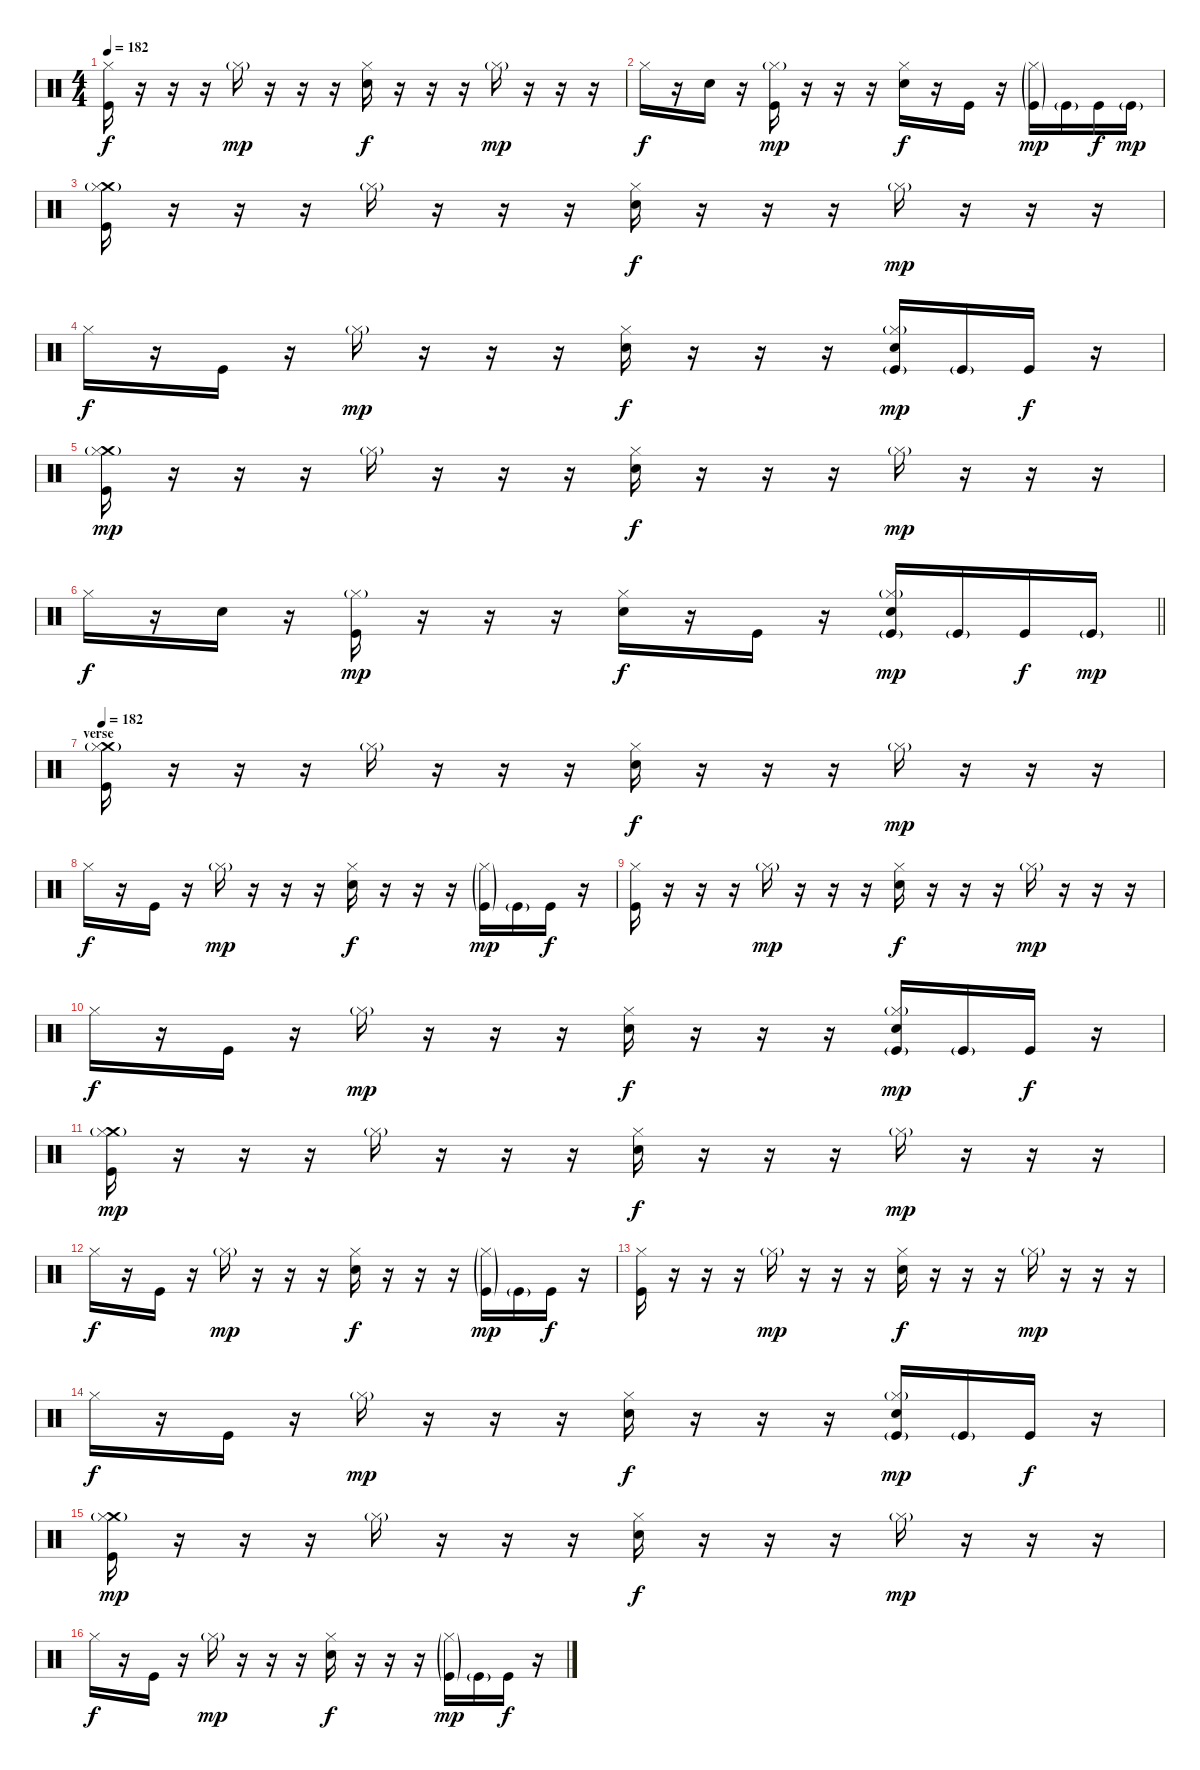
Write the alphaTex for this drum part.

\track "" {instrument percussion}
\staff {score}
\articulation defaults
\ts (4 4)
\tempo 182
\clef neutral
\ks c
("Kick (hit)" "Hi-Hat (closed)").16{dy f} r.16 r.16 r.16 "Hi-Hat (closed)"{g}.16{dy mp} r.16 r.16 r.16 ("Hi-Hat (closed)" "Electric Snare (hit)").16{dy f} r.16 r.16 r.16 "Hi-Hat (closed)"{g}.16{dy mp} r.16 r.16 r.16 |
"Hi-Hat (closed)".16{dy f} r.16 "Electric Snare (hit)".16 r.16 ("Kick (hit)" "Hi-Hat (closed)"{g}).16{dy mp} r.16 r.16 r.16 ("Hi-Hat (closed)" "Electric Snare (hit)").16{dy f} r.16 "Kick (hit)".16 r.16 ("Kick (hit)"{g} "Hi-Hat (closed)"{g}).16{dy mp} "Kick (hit)"{g}.16 "Kick (hit)".16{dy f} "Kick (hit)"{g}.16{dy mp} |
("Crash medium (hit)"{g} "Kick (hit)" "Hi-Hat (closed)").16 r.16 r.16 r.16 "Hi-Hat (closed)"{g}.16 r.16 r.16 r.16 ("Hi-Hat (closed)" "Electric Snare (hit)").16{dy f} r.16 r.16 r.16 "Hi-Hat (closed)"{g}.16{dy mp} r.16 r.16 r.16 |
"Hi-Hat (closed)".16{dy f} r.16 "Kick (hit)".16 r.16 "Hi-Hat (closed)"{g}.16{dy mp} r.16 r.16 r.16 ("Hi-Hat (closed)" "Electric Snare (hit)").16{dy f} r.16 r.16 r.16 ("Kick (hit)"{g} "Hi-Hat (closed)"{g} "Electric Snare (hit)").16{dy mp} "Kick (hit)"{g}.16 "Kick (hit)".16{dy f} r.16 |
("Crash medium (hit)"{g} "Kick (hit)" "Hi-Hat (closed)").16{dy mp} r.16 r.16 r.16 "Hi-Hat (closed)"{g}.16 r.16 r.16 r.16 ("Hi-Hat (closed)" "Electric Snare (hit)").16{dy f} r.16 r.16 r.16 "Hi-Hat (closed)"{g}.16{dy mp} r.16 r.16 r.16 |
\barLineRight lightlight "Hi-Hat (closed)".16{dy f}
r.16 "Electric Snare (hit)".16 r.16 ("Kick (hit)" "Hi-Hat (closed)"{g}).16{dy mp} r.16 r.16 r.16 ("Hi-Hat (closed)" "Electric Snare (hit)").16{dy f} r.16 "Kick (hit)".16 r.16 ("Kick (hit)"{g} "Hi-Hat (closed)"{g} "Electric Snare (hit)").16{dy mp} "Kick (hit)"{g}.16 "Kick (hit)".16{dy f} "Kick (hit)"{g}.16{dy mp} |
\section ("" "verse")
\tempo 182
("Crash medium (hit)"{g} "Kick (hit)" "Hi-Hat (closed)").16 r.16 r.16 r.16 "Hi-Hat (closed)"{g}.16 r.16 r.16 r.16 ("Hi-Hat (closed)" "Electric Snare (hit)").16{dy f} r.16 r.16 r.16 "Hi-Hat (closed)"{g}.16{dy mp} r.16 r.16 r.16 |
"Hi-Hat (closed)".16{dy f} r.16 "Kick (hit)".16 r.16 "Hi-Hat (closed)"{g}.16{dy mp} r.16 r.16 r.16 ("Hi-Hat (closed)" "Electric Snare (hit)").16{dy f} r.16 r.16 r.16 ("Kick (hit)"{g} "Hi-Hat (closed)"{g}).16{dy mp} "Kick (hit)"{g}.16 "Kick (hit)".16{dy f} r.16 |
("Kick (hit)" "Hi-Hat (closed)").16 r.16 r.16 r.16 "Hi-Hat (closed)"{g}.16{dy mp} r.16 r.16 r.16 ("Hi-Hat (closed)" "Electric Snare (hit)").16{dy f} r.16 r.16 r.16 "Hi-Hat (closed)"{g}.16{dy mp} r.16 r.16 r.16 |
"Hi-Hat (closed)".16{dy f} r.16 "Kick (hit)".16 r.16 "Hi-Hat (closed)"{g}.16{dy mp} r.16 r.16 r.16 ("Hi-Hat (closed)" "Electric Snare (hit)").16{dy f} r.16 r.16 r.16 ("Kick (hit)"{g} "Hi-Hat (closed)"{g} "Electric Snare (hit)").16{dy mp} "Kick (hit)"{g}.16 "Kick (hit)".16{dy f} r.16 |
("Crash medium (hit)"{g} "Kick (hit)" "Hi-Hat (closed)").16{dy mp} r.16 r.16 r.16 "Hi-Hat (closed)"{g}.16 r.16 r.16 r.16 ("Hi-Hat (closed)" "Electric Snare (hit)").16{dy f} r.16 r.16 r.16 "Hi-Hat (closed)"{g}.16{dy mp} r.16 r.16 r.16 |
"Hi-Hat (closed)".16{dy f} r.16 "Kick (hit)".16 r.16 "Hi-Hat (closed)"{g}.16{dy mp} r.16 r.16 r.16 ("Hi-Hat (closed)" "Electric Snare (hit)").16{dy f} r.16 r.16 r.16 ("Kick (hit)"{g} "Hi-Hat (closed)"{g}).16{dy mp} "Kick (hit)"{g}.16 "Kick (hit)".16{dy f} r.16 |
("Kick (hit)" "Hi-Hat (closed)").16 r.16 r.16 r.16 "Hi-Hat (closed)"{g}.16{dy mp} r.16 r.16 r.16 ("Hi-Hat (closed)" "Electric Snare (hit)").16{dy f} r.16 r.16 r.16 "Hi-Hat (closed)"{g}.16{dy mp} r.16 r.16 r.16 |
"Hi-Hat (closed)".16{dy f} r.16 "Kick (hit)".16 r.16 "Hi-Hat (closed)"{g}.16{dy mp} r.16 r.16 r.16 ("Hi-Hat (closed)" "Electric Snare (hit)").16{dy f} r.16 r.16 r.16 ("Kick (hit)"{g} "Hi-Hat (closed)"{g} "Electric Snare (hit)").16{dy mp} "Kick (hit)"{g}.16 "Kick (hit)".16{dy f} r.16 |
("Crash medium (hit)"{g} "Kick (hit)" "Hi-Hat (closed)").16{dy mp} r.16 r.16 r.16 "Hi-Hat (closed)"{g}.16 r.16 r.16 r.16 ("Hi-Hat (closed)" "Electric Snare (hit)").16{dy f} r.16 r.16 r.16 "Hi-Hat (closed)"{g}.16{dy mp} r.16 r.16 r.16 |
"Hi-Hat (closed)".16{dy f} r.16 "Kick (hit)".16 r.16 "Hi-Hat (closed)"{g}.16{dy mp} r.16 r.16 r.16 ("Hi-Hat (closed)" "Electric Snare (hit)").16{dy f} r.16 r.16 r.16 ("Kick (hit)"{g} "Hi-Hat (closed)"{g}).16{dy mp} "Kick (hit)"{g}.16 "Kick (hit)".16{dy f} r.16
